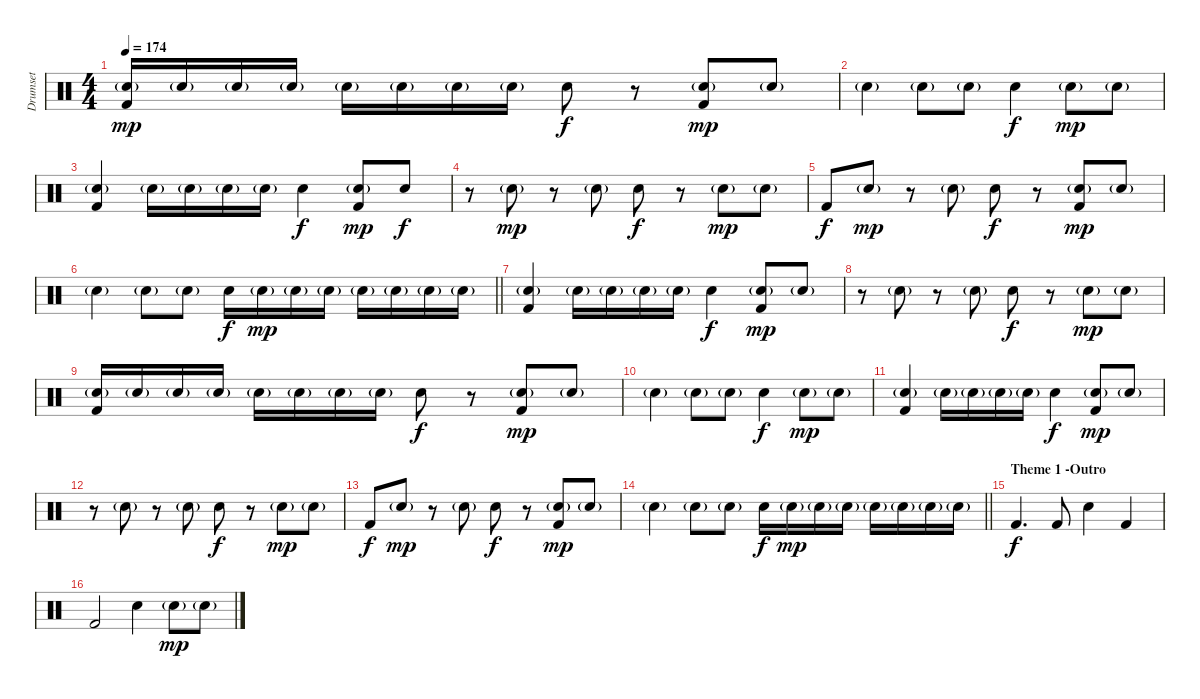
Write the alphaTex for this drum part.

\track ("Drumset" "Drumset") {instrument percussion}
\staff {score}
\articulation defaults
\ts (4 4)
\tempo 174
\clef neutral
\ks c
("Snare (hit) 2"{g} "Kick (hit) 2").16{dy mp} "Snare (hit) 2"{g}.16 "Snare (hit) 2"{g}.16 "Snare (hit) 2"{g}.16 "Snare (hit) 2"{g}.16 "Snare (hit) 2"{g}.16 "Snare (hit) 2"{g}.16 "Snare (hit) 2"{g}.16 "Snare (hit) 2".8{dy f} r.8 ("Snare (hit) 2"{g} "Kick (hit) 2").8{dy mp} "Snare (hit) 2"{g}.8 |
"Snare (hit) 2"{g}.4 "Snare (hit) 2"{g}.8 "Snare (hit) 2"{g}.8 "Snare (hit) 2".4{dy f} "Snare (hit) 2"{g}.8{dy mp} "Snare (hit) 2"{g}.8 |
("Snare (hit) 2"{g} "Kick (hit) 2").4 "Snare (hit) 2"{g}.16 "Snare (hit) 2"{g}.16 "Snare (hit) 2"{g}.16 "Snare (hit) 2"{g}.16 "Snare (hit) 2".4{dy f} ("Snare (hit) 2"{g} "Kick (hit) 2").8{dy mp} "Snare (hit) 2".8{dy f} |
r.8 "Snare (hit) 2"{g}.8{dy mp} r.8 "Snare (hit) 2"{g}.8 "Snare (hit) 2".8{dy f} r.8 "Snare (hit) 2"{g}.8{dy mp} "Snare (hit) 2"{g}.8 |
"Kick (hit) 2".8{dy f} "Snare (hit) 2"{g}.8{dy mp} r.8 "Snare (hit) 2"{g}.8 "Snare (hit) 2".8{dy f} r.8 ("Snare (hit) 2"{g} "Kick (hit) 2").8{dy mp} "Snare (hit) 2"{g}.8 |
\barLineRight lightlight "Snare (hit) 2"{g}.4 "Snare (hit) 2"{g}.8 "Snare (hit) 2"{g}.8 "Snare (hit) 2".16{dy f} "Snare (hit) 2"{g}.16{dy mp} "Snare (hit) 2"{g}.16 "Snare (hit) 2"{g}.16 "Snare (hit) 2"{g}.16 "Snare (hit) 2"{g}.16 "Snare (hit) 2"{g}.16 "Snare (hit) 2"{g}.16
|
("Snare (hit) 2"{g} "Kick (hit) 2").4 "Snare (hit) 2"{g}.16 "Snare (hit) 2"{g}.16 "Snare (hit) 2"{g}.16 "Snare (hit) 2"{g}.16 "Snare (hit) 2".4{dy f} ("Snare (hit) 2"{g} "Kick (hit) 2").8{dy mp} "Snare (hit) 2"{g}.8 |
r.8 "Snare (hit) 2"{g}.8 r.8 "Snare (hit) 2"{g}.8 "Snare (hit) 2".8{dy f} r.8 "Snare (hit) 2"{g}.8{dy mp} "Snare (hit) 2"{g}.8 |
("Snare (hit) 2"{g} "Kick (hit) 2").16 "Snare (hit) 2"{g}.16 "Snare (hit) 2"{g}.16 "Snare (hit) 2"{g}.16 "Snare (hit) 2"{g}.16 "Snare (hit) 2"{g}.16 "Snare (hit) 2"{g}.16 "Snare (hit) 2"{g}.16 "Snare (hit) 2".8{dy f} r.8 ("Snare (hit) 2"{g} "Kick (hit) 2").8{dy mp} "Snare (hit) 2"{g}.8 |
"Snare (hit) 2"{g}.4 "Snare (hit) 2"{g}.8 "Snare (hit) 2"{g}.8 "Snare (hit) 2".4{dy f} "Snare (hit) 2"{g}.8{dy mp} "Snare (hit) 2"{g}.8 |
("Snare (hit) 2"{g} "Kick (hit) 2").4 "Snare (hit) 2"{g}.16 "Snare (hit) 2"{g}.16 "Snare (hit) 2"{g}.16 "Snare (hit) 2"{g}.16 "Snare (hit) 2".4{dy f} ("Snare (hit) 2"{g} "Kick (hit) 2").8{dy mp} "Snare (hit) 2"{g}.8 |
r.8 "Snare (hit) 2"{g}.8 r.8 "Snare (hit) 2"{g}.8 "Snare (hit) 2".8{dy f} r.8 "Snare (hit) 2"{g}.8{dy mp} "Snare (hit) 2"{g}.8 |
"Kick (hit) 2".8{dy f} "Snare (hit) 2"{g}.8{dy mp} r.8 "Snare (hit) 2"{g}.8 "Snare (hit) 2".8{dy f} r.8 ("Snare (hit) 2"{g} "Kick (hit) 2").8{dy mp} "Snare (hit) 2"{g}.8 |
\barLineRight lightlight "Snare (hit) 2"{g}.4 "Snare (hit) 2"{g}.8 "Snare (hit) 2"{g}.8 "Snare (hit) 2".16{dy f} "Snare (hit) 2"{g}.16{dy mp} "Snare (hit) 2"{g}.16 "Snare (hit) 2"{g}.16 "Snare (hit) 2"{g}.16 "Snare (hit) 2"{g}.16 "Snare (hit) 2"{g}.16 "Snare (hit) 2"{g}.16
|
\section ("" "Theme 1 -Outro")
"Kick (hit) 2".4{d dy f} "Kick (hit) 2".8 "Snare (hit) 2".4 "Kick (hit) 2".4 |
"Kick (hit) 2".2 "Snare (hit) 2".4 "Snare (hit) 2"{g}.8{dy mp} "Snare (hit) 2"{g}.8
